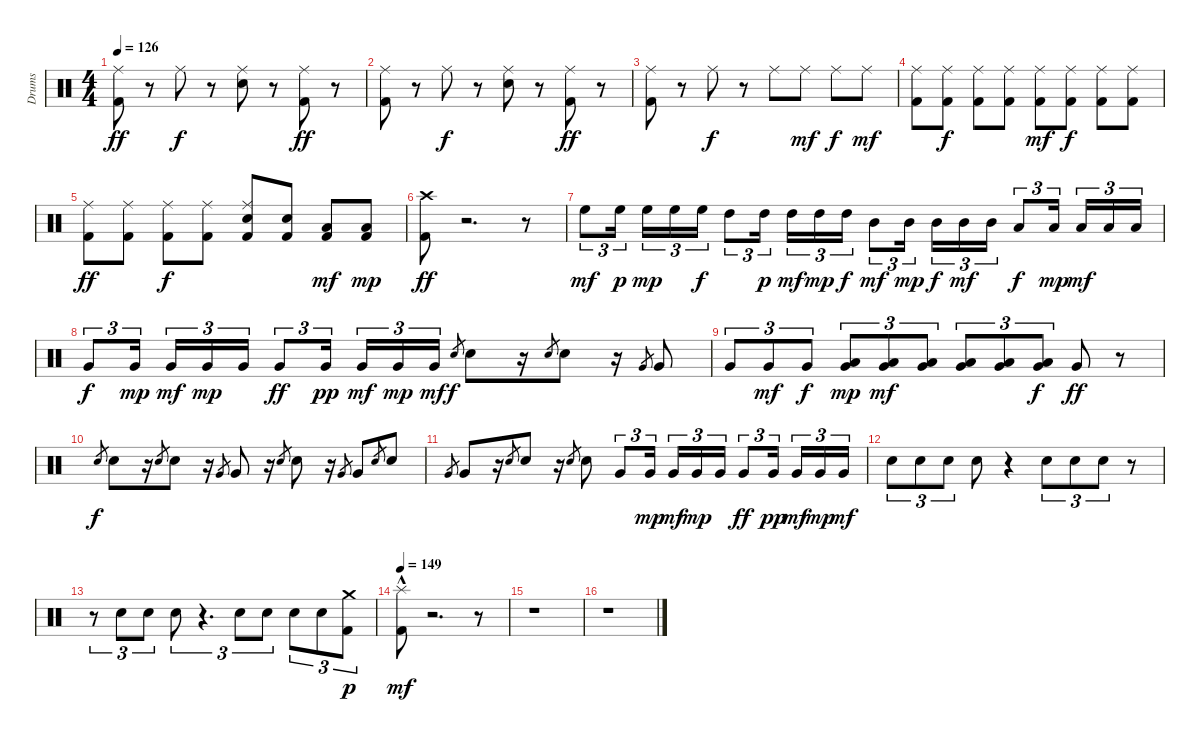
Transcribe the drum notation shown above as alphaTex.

\track ("Drums" "Drums") {instrument percussion}
\staff {score}
\articulation defaults
\ts (4 4)
\tempo 126
\clef neutral
\ks c
("Kick (hit) 2" "Ride (middle)").8{dy ff} r.8 "Ride (middle)".8{dy f} r.8 ("Snare (hit) 2" "Ride (middle)").8 r.8 ("Kick (hit) 2" "Ride (middle)").8{dy ff} r.8 |
("Kick (hit) 2" "Ride (middle)").8 r.8 "Ride (middle)".8{dy f} r.8 ("Snare (hit) 2" "Ride (middle)").8 r.8 ("Kick (hit) 2" "Ride (middle)").8{dy ff} r.8 |
("Kick (hit) 2" "Ride (middle)").8 r.8 "Ride (middle)".8{dy f} r.8 "Ride (middle)".8 "Ride (middle)".8{dy mf} "Ride (middle)".8{dy f} "Ride (middle)".8{dy mf} |
("Kick (hit) 2" "Ride (middle)").8 ("Kick (hit) 2" "Ride (middle)").8{dy f} ("Kick (hit) 2" "Ride (middle)").8 ("Kick (hit) 2" "Ride (middle)").8 ("Kick (hit) 2" "Ride (middle)").8{dy mf} ("Kick (hit) 2" "Ride (middle)").8{dy f} ("Kick (hit) 2" "Ride (middle)").8 ("Kick (hit) 2" "Ride (middle)").8 |
("Kick (hit) 2" "Ride (middle)").8{dy ff} ("Kick (hit) 2" "Ride (middle)").8 ("Kick (hit) 2" "Ride (middle)").8{dy f} ("Kick (hit) 2" "Ride (middle)").8 ("Snare (hit) 2" "Kick (hit) 2" "Ride (middle)").8 ("Kick (hit) 2" "Snare (hit) 2").8 ("Kick (hit) 2" "Low Tom (hit)").8{dy mf} ("Kick (hit) 2" "Low Tom (hit)").8{dy mp} |
("Kick (hit) 2" "Crash high (hit)").8{dy ff} r.2{d} r.8 |
"High Floor Tom (hit)".8{tu (3 2) dy mf} "High Floor Tom (hit)".16{tu (3 2) dy p} "High Floor Tom (hit)".16{tu (3 2) dy mp} "High Floor Tom (hit)".16{tu (3 2)} "High Floor Tom (hit)".16{tu (3 2) dy f} "High Tom (hit)".8{tu (3 2)} "High Tom (hit)".16{tu (3 2) dy p} "High Tom (hit)".16{tu (3 2) dy mf} "High Tom (hit)".16{tu (3 2) dy mp} "High Tom (hit)".16{tu (3 2) dy f} "Mid Tom (hit)".8{tu (3 2) dy mf} "Mid Tom (hit)".16{tu (3 2) dy mp} "Mid Tom (hit)".16{tu (3 2) dy f} "Mid Tom (hit)".16{tu (3 2) dy mf} "Mid Tom (hit)".16{tu (3 2)} "Low Tom (hit)".8{tu (3 2) dy f} "Low Tom (hit)".16{tu (3 2) dy mp} "Low Tom (hit)".16{tu (3 2) dy mf} "Low Tom (hit)".16{tu (3 2)} "Low Tom (hit)".16{tu (3 2)} |
"Very Low Tom (hit)".8{tu (3 2) dy f} "Very Low Tom (hit)".16{tu (3 2) dy mp} "Very Low Tom (hit)".16{tu (3 2) dy mf} "Very Low Tom (hit)".16{tu (3 2) dy mp} "Very Low Tom (hit)".16{tu (3 2)} "Very Low Tom (hit)".8{tu (3 2) dy ff} "Very Low Tom (hit)".16{tu (3 2) dy pp} "Very Low Tom (hit)".16{tu (3 2) dy mf} "Very Low Tom (hit)".16{tu (3 2) dy mp} "Very Low Tom (hit)".16{tu (3 2) dy mf} "Snare (hit) 2".8{gr dy f} "Snare (hit) 2".8 r.16 "Snare (hit) 2".8{gr} "Snare (hit) 2".8 r.16 "Very Low Tom (hit)".8{gr} "Very Low Tom (hit)".8 |
"Very Low Tom (hit)".8{tu (3 2)} "Very Low Tom (hit)".8{tu (3 2) dy mf} "Very Low Tom (hit)".8{tu (3 2) dy f} ("Low Tom (hit)" "Very Low Tom (hit)").8{tu (3 2) dy mp} ("Low Tom (hit)" "Very Low Tom (hit)").8{tu (3 2) dy mf} ("Low Tom (hit)" "Very Low Tom (hit)").8{tu (3 2)} ("Very Low Tom (hit)" "Low Floor Tom (hit)").8{tu (3 2)} ("Very Low Tom (hit)" "Low Floor Tom (hit)").8{tu (3 2)} ("Very Low Tom (hit)" "Low Floor Tom (hit)").8{tu (3 2) dy f} "Very Low Tom (hit)".8{dy ff} r.8 |
"Snare (hit) 2".8{gr dy f} "Snare (hit) 2".8 r.16 "Snare (hit) 2".8{gr} "Snare (hit) 2".8 r.16 "Very Low Tom (hit)".8{gr} "Very Low Tom (hit)".8 r.16 "Snare (hit) 2".8{gr} "Snare (hit) 2".8 r.16 "Very Low Tom (hit)".8{gr} "Very Low Tom (hit)".8 "Snare (hit) 2".8{gr} "Snare (hit) 2".8 |
"Very Low Tom (hit)".8{gr} "Very Low Tom (hit)".8 r.16 "Snare (hit) 2".8{gr} "Snare (hit) 2".8 r.16 "Snare (hit) 2".8{gr} "Snare (hit) 2".8 "Very Low Tom (hit)".8{tu (3 2)} "Very Low Tom (hit)".16{tu (3 2) dy mp} "Very Low Tom (hit)".16{tu (3 2) dy mf} "Very Low Tom (hit)".16{tu (3 2) dy mp} "Very Low Tom (hit)".16{tu (3 2)} "Very Low Tom (hit)".8{tu (3 2) dy ff} "Very Low Tom (hit)".16{tu (3 2) dy pp} "Very Low Tom (hit)".16{tu (3 2) dy mf} "Very Low Tom (hit)".16{tu (3 2) dy mp} "Very Low Tom (hit)".16{tu (3 2) dy mf} |
"Snare (hit) 2".8{tu (3 2)} "Snare (hit) 2".8{tu (3 2)} "Snare (hit) 2".8{tu (3 2)} "Snare (hit) 2".8 r.4 "Snare (hit) 2".8{tu (3 2)} "Snare (hit) 2".8{tu (3 2)} "Snare (hit) 2".8{tu (3 2)} r.8 |
r.8{tu (3 2)} "Snare (hit) 2".8{tu (3 2)} "Snare (hit) 2".8{tu (3 2)} "Snare (hit) 2".8{tu (3 2)} r.4{d tu (3 2)} "Snare (hit) 2".8{tu (3 2)} "Snare (hit) 2".8{tu (3 2)} "Snare (hit) 2".8{tu (3 2)} "Snare (hit) 2".8{tu (3 2)} ("Kick (hit) 2" "Crash medium (hit)").8{tu (3 2) dy p} |
\tempo 149
("Kick (hit) 2"{hac} "Splash (hit)").8{dy mf} r.2{d} r.8 |
r.1 |
r.1
